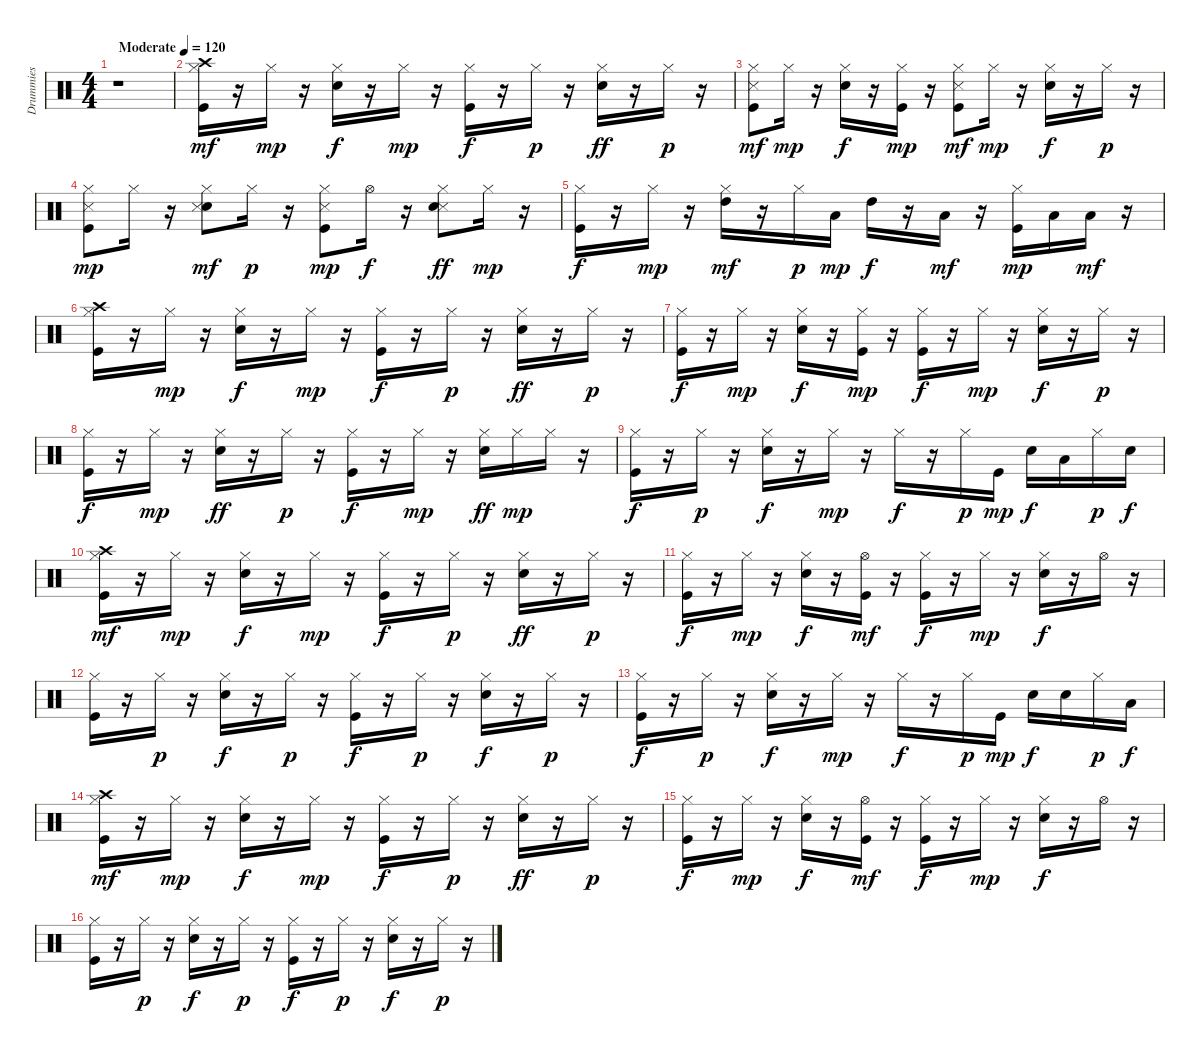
\track ("Drummies" "Drummies") {instrument percussion}
\staff {score}
\articulation defaults
\ts (4 4)
\tempo (120 "Moderate")
\clef neutral
\ks c
r.1{dy mf} |
("Hi-Hat (closed)" "Kick (hit)" "Crash high (hit)").16 r.16 "Hi-Hat (closed)".16{dy mp} r.16 ("Snare (hit) 2" "Hi-Hat (closed)").16{dy f} r.16 "Hi-Hat (closed)".16{dy mp} r.16 ("Hi-Hat (closed)" "Kick (hit)").16{dy f} r.16 "Hi-Hat (closed)".16{dy p} r.16 ("Hi-Hat (closed)" "Snare (hit) 2").16{dy ff} r.16 "Hi-Hat (closed)".16{dy p} r.16 |
("Snare (side stick) 3" "Kick (hit)" "Hi-Hat (closed)").8{dy mf} "Hi-Hat (closed)".16{dy mp} r.16 ("Hi-Hat (closed)" "Snare (hit) 2").16{dy f} r.16 ("Kick (hit)" "Hi-Hat (closed)").16{dy mp} r.16 ("Kick (hit)" "Snare (side stick) 3" "Hi-Hat (closed)").8{dy mf} "Hi-Hat (closed)".16{dy mp} r.16 ("Snare (hit) 2" "Hi-Hat (closed)").16{dy f} r.16 "Hi-Hat (closed)".16{dy p} r.16 |
("Snare (side stick) 3" "Hi-Hat (closed)" "Kick (hit)").8{dy mp} "Hi-Hat (closed)".16 r.16 ("Snare (hit) 2" "Hi-Hat (closed)" "Snare (side stick) 3").8{dy mf} "Hi-Hat (closed)".16{dy p} r.16 ("Kick (hit)" "Snare (side stick) 3" "Hi-Hat (closed)").8{dy mp} "Hi-Hat (open)".16{dy f} r.16 ("Snare (side stick) 3" "Snare (hit) 2" "Hi-Hat (closed)").8{dy ff} "Hi-Hat (closed)".16{dy mp} r.16 |
("Kick (hit)" "Hi-Hat (closed)").16{dy f} r.16 "Hi-Hat (closed)".16{dy mp} r.16 ("Hi-Hat (closed)" "High Tom (hit)").16{dy mf} r.16 "Hi-Hat (closed)".16{dy p} "Low Tom (hit)".16{dy mp} "High Tom (hit)".16{dy f} r.16 "Low Tom (hit)".16{dy mf} r.16 ("Kick (hit)" "Hi-Hat (closed)").16{dy mp} "Low Tom (hit)".16 "Low Floor Tom (hit)".16{dy mf} r.16 |
("Kick (hit)" "Hi-Hat (closed)" "Crash high (hit)").16 r.16 "Hi-Hat (closed)".16{dy mp} r.16 ("Snare (hit) 2" "Hi-Hat (closed)").16{dy f} r.16 "Hi-Hat (closed)".16{dy mp} r.16 ("Kick (hit)" "Hi-Hat (closed)").16{dy f} r.16 "Hi-Hat (closed)".16{dy p} r.16 ("Snare (hit) 2" "Hi-Hat (closed)").16{dy ff} r.16 "Hi-Hat (closed)".16{dy p} r.16 |
("Kick (hit)" "Hi-Hat (closed)").16{dy f} r.16 "Hi-Hat (closed)".16{dy mp} r.16 ("Snare (hit) 2" "Hi-Hat (closed)").16{dy f} r.16 ("Kick (hit)" "Hi-Hat (closed)").16{dy mp} r.16 ("Kick (hit)" "Hi-Hat (closed)").16{dy f} r.16 "Hi-Hat (closed)".16{dy mp} r.16 ("Snare (hit) 2" "Hi-Hat (closed)").16{dy f} r.16 "Hi-Hat (closed)".16{dy p} r.16 |
("Kick (hit)" "Hi-Hat (closed)").16{dy f} r.16 "Hi-Hat (closed)".16{dy mp} r.16 ("Snare (hit) 2" "Hi-Hat (closed)").16{dy ff} r.16 "Hi-Hat (closed)".16{dy p} r.16 ("Kick (hit)" "Hi-Hat (closed)").16{dy f} r.16 "Hi-Hat (closed)".16{dy mp} r.16 ("Snare (hit) 2" "Hi-Hat (closed)").16{dy ff} "Hi-Hat (closed)".16{dy mp} "Hi-Hat (closed)".16 r.16 |
("Kick (hit)" "Hi-Hat (closed)").16{dy f} r.16 "Hi-Hat (closed)".16{dy p} r.16 ("Snare (hit) 2" "Hi-Hat (closed)").16{dy f} r.16 "Hi-Hat (closed)".16{dy mp} r.16 "Hi-Hat (closed)".16{dy f} r.16 "Hi-Hat (closed)".16{dy p} "Kick (hit)".16{dy mp} "Snare (hit) 2".16{dy f} "Low Tom (hit)".16 "Hi-Hat (closed)".16{dy p} "Snare (hit) 2".16{dy f} |
("Kick (hit)" "Hi-Hat (closed)" "Crash high (hit)").16{dy mf} r.16 "Hi-Hat (closed)".16{dy mp} r.16 ("Snare (hit) 2" "Hi-Hat (closed)").16{dy f} r.16 "Hi-Hat (closed)".16{dy mp} r.16 ("Kick (hit)" "Hi-Hat (closed)").16{dy f} r.16 "Hi-Hat (closed)".16{dy p} r.16 ("Snare (hit) 2" "Hi-Hat (closed)").16{dy ff} r.16 "Hi-Hat (closed)".16{dy p} r.16 |
("Kick (hit)" "Hi-Hat (closed)").16{dy f} r.16 "Hi-Hat (closed)".16{dy mp} r.16 ("Snare (hit) 2" "Hi-Hat (closed)").16{dy f} r.16 ("Kick (hit)" "Hi-Hat (open)").16{dy mf} r.16 ("Kick (hit)" "Hi-Hat (closed)").16{dy f} r.16 "Hi-Hat (closed)".16{dy mp} r.16 ("Snare (hit) 2" "Hi-Hat (closed)").16{dy f} r.16 "Hi-Hat (open)".16 r.16 |
("Kick (hit)" "Hi-Hat (closed)").16 r.16 "Hi-Hat (closed)".16{dy p} r.16 ("Snare (hit) 2" "Hi-Hat (closed)").16{dy f} r.16 "Hi-Hat (closed)".16{dy p} r.16 ("Kick (hit)" "Hi-Hat (closed)").16{dy f} r.16 "Hi-Hat (closed)".16{dy p} r.16 ("Snare (hit) 2" "Hi-Hat (closed)").16{dy f} r.16 "Hi-Hat (closed)".16{dy p} r.16 |
("Kick (hit)" "Hi-Hat (closed)").16{dy f} r.16 "Hi-Hat (closed)".16{dy p} r.16 ("Snare (hit) 2" "Hi-Hat (closed)").16{dy f} r.16 "Hi-Hat (closed)".16{dy mp} r.16 "Hi-Hat (closed)".16{dy f} r.16 "Hi-Hat (closed)".16{dy p} "Kick (hit)".16{dy mp} "Snare (hit) 2".16{dy f} "Snare (hit) 2".16 "Hi-Hat (closed)".16{dy p} "Low Tom (hit)".16{dy f} |
("Kick (hit)" "Hi-Hat (closed)" "Crash high (hit)").16{dy mf} r.16 "Hi-Hat (closed)".16{dy mp} r.16 ("Snare (hit) 2" "Hi-Hat (closed)").16{dy f} r.16 "Hi-Hat (closed)".16{dy mp} r.16 ("Kick (hit)" "Hi-Hat (closed)").16{dy f} r.16 "Hi-Hat (closed)".16{dy p} r.16 ("Snare (hit) 2" "Hi-Hat (closed)").16{dy ff} r.16 "Hi-Hat (closed)".16{dy p} r.16 |
("Kick (hit)" "Hi-Hat (closed)").16{dy f} r.16 "Hi-Hat (closed)".16{dy mp} r.16 ("Snare (hit) 2" "Hi-Hat (closed)").16{dy f} r.16 ("Kick (hit)" "Hi-Hat (open)").16{dy mf} r.16 ("Kick (hit)" "Hi-Hat (closed)").16{dy f} r.16 "Hi-Hat (closed)".16{dy mp} r.16 ("Snare (hit) 2" "Hi-Hat (closed)").16{dy f} r.16 "Hi-Hat (open)".16 r.16 |
("Kick (hit)" "Hi-Hat (closed)").16 r.16 "Hi-Hat (closed)".16{dy p} r.16 ("Snare (hit) 2" "Hi-Hat (closed)").16{dy f} r.16 "Hi-Hat (closed)".16{dy p} r.16 ("Kick (hit)" "Hi-Hat (closed)").16{dy f} r.16 "Hi-Hat (closed)".16{dy p} r.16 ("Snare (hit) 2" "Hi-Hat (closed)").16{dy f} r.16 "Hi-Hat (closed)".16{dy p} r.16
